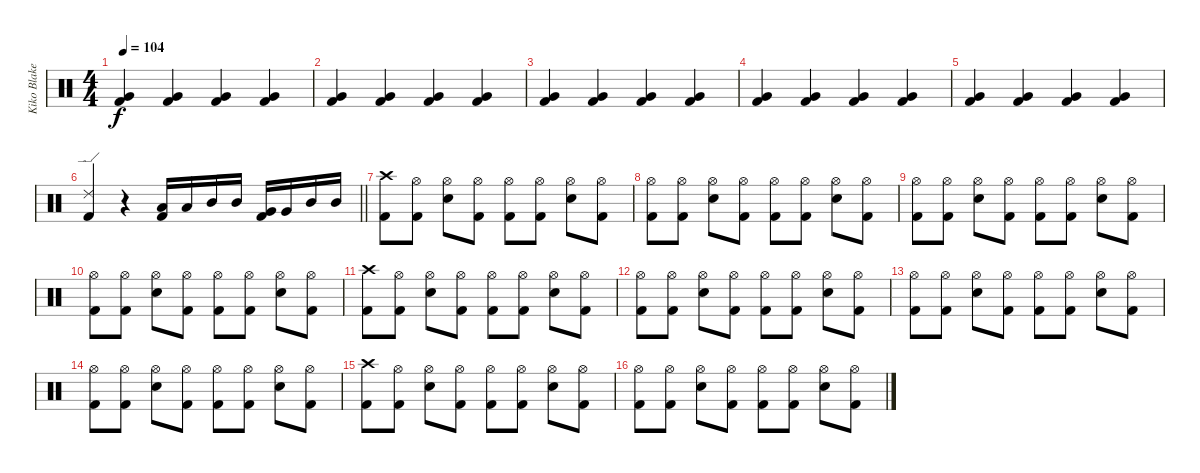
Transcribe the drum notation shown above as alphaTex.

\track ("Kiko Blake" "Kiko Blake") {instrument percussion}
\staff
\articulation defaults
\ts (4 4)
\tempo 104
\clef neutral
\ks c
("Very Low Tom (hit)" "Kick (hit) 2").4{dy f} ("Very Low Tom (hit)" "Kick (hit) 2").4 ("Very Low Tom (hit)" "Kick (hit) 2").4 ("Very Low Tom (hit)" "Kick (hit) 2").4 |
("Very Low Tom (hit)" "Kick (hit) 2").4 ("Very Low Tom (hit)" "Kick (hit) 2").4 ("Very Low Tom (hit)" "Kick (hit) 2").4 ("Very Low Tom (hit)" "Kick (hit) 2").4 |
("Very Low Tom (hit)" "Kick (hit) 2").4 ("Very Low Tom (hit)" "Kick (hit) 2").4 ("Very Low Tom (hit)" "Kick (hit) 2").4 ("Very Low Tom (hit)" "Kick (hit) 2").4 |
("Very Low Tom (hit)" "Kick (hit) 2").4 ("Very Low Tom (hit)" "Kick (hit) 2").4 ("Very Low Tom (hit)" "Kick (hit) 2").4 ("Very Low Tom (hit)" "Kick (hit) 2").4 |
("Very Low Tom (hit)" "Kick (hit) 2").4 ("Very Low Tom (hit)" "Kick (hit) 2").4 ("Very Low Tom (hit)" "Kick (hit) 2").4 ("Very Low Tom (hit)" "Kick (hit) 2").4 |
\barLineRight lightlight
("Ride (edge) 2" "Kick (hit) 2").4 r.4 ("Low Tom (hit)" "Kick (hit) 2").16 "Low Tom (hit)".16 "Mid Tom (hit)".16 "Mid Tom (hit)".16 ("Very Low Tom (hit)" "Kick (hit) 2").16 "Very Low Tom (hit)".16 "Mid Tom (hit)".16 "Mid Tom (hit)".16 |
("Crash high (hit)" "Kick (hit) 2").8 ("Hi-Hat (open)" "Kick (hit) 2").8 ("Hi-Hat (open)" "Snare (hit) 2").8 ("Hi-Hat (open)" "Kick (hit) 2").8 ("Hi-Hat (open)" "Kick (hit) 2").8 ("Hi-Hat (open)" "Kick (hit) 2").8 ("Hi-Hat (open)" "Snare (hit) 2").8 ("Hi-Hat (open)" "Kick (hit) 2").8 |
("Hi-Hat (open)" "Kick (hit) 2").8 ("Hi-Hat (open)" "Kick (hit) 2").8 ("Hi-Hat (open)" "Snare (hit) 2").8 ("Hi-Hat (open)" "Kick (hit) 2").8 ("Hi-Hat (open)" "Kick (hit) 2").8 ("Hi-Hat (open)" "Kick (hit) 2").8 ("Hi-Hat (open)" "Snare (hit) 2").8 ("Hi-Hat (open)" "Kick (hit) 2").8 |
("Hi-Hat (open)" "Kick (hit) 2").8 ("Hi-Hat (open)" "Kick (hit) 2").8 ("Hi-Hat (open)" "Snare (hit) 2").8 ("Hi-Hat (open)" "Kick (hit) 2").8 ("Hi-Hat (open)" "Kick (hit) 2").8 ("Hi-Hat (open)" "Kick (hit) 2").8 ("Hi-Hat (open)" "Snare (hit) 2").8 ("Hi-Hat (open)" "Kick (hit) 2").8 |
("Hi-Hat (open)" "Kick (hit) 2").8 ("Hi-Hat (open)" "Kick (hit) 2").8 ("Hi-Hat (open)" "Snare (hit) 2").8 ("Hi-Hat (open)" "Kick (hit) 2").8 ("Hi-Hat (open)" "Kick (hit) 2").8 ("Hi-Hat (open)" "Kick (hit) 2").8 ("Hi-Hat (open)" "Snare (hit) 2").8 ("Hi-Hat (open)" "Kick (hit) 2").8 |
("Crash high (hit)" "Kick (hit) 2").8 ("Hi-Hat (open)" "Kick (hit) 2").8 ("Hi-Hat (open)" "Snare (hit) 2").8 ("Hi-Hat (open)" "Kick (hit) 2").8 ("Hi-Hat (open)" "Kick (hit) 2").8 ("Hi-Hat (open)" "Kick (hit) 2").8 ("Hi-Hat (open)" "Snare (hit) 2").8 ("Hi-Hat (open)" "Kick (hit) 2").8 |
("Hi-Hat (open)" "Kick (hit) 2").8 ("Hi-Hat (open)" "Kick (hit) 2").8 ("Hi-Hat (open)" "Snare (hit) 2").8 ("Hi-Hat (open)" "Kick (hit) 2").8 ("Hi-Hat (open)" "Kick (hit) 2").8 ("Hi-Hat (open)" "Kick (hit) 2").8 ("Hi-Hat (open)" "Snare (hit) 2").8 ("Hi-Hat (open)" "Kick (hit) 2").8 |
("Hi-Hat (open)" "Kick (hit) 2").8 ("Hi-Hat (open)" "Kick (hit) 2").8 ("Hi-Hat (open)" "Snare (hit) 2").8 ("Hi-Hat (open)" "Kick (hit) 2").8 ("Hi-Hat (open)" "Kick (hit) 2").8 ("Hi-Hat (open)" "Kick (hit) 2").8 ("Hi-Hat (open)" "Snare (hit) 2").8 ("Hi-Hat (open)" "Kick (hit) 2").8 |
("Hi-Hat (open)" "Kick (hit) 2").8 ("Hi-Hat (open)" "Kick (hit) 2").8 ("Hi-Hat (open)" "Snare (hit) 2").8 ("Hi-Hat (open)" "Kick (hit) 2").8 ("Hi-Hat (open)" "Kick (hit) 2").8 ("Hi-Hat (open)" "Kick (hit) 2").8 ("Hi-Hat (open)" "Snare (hit) 2").8 ("Hi-Hat (open)" "Kick (hit) 2").8 |
("Crash high (hit)" "Kick (hit) 2").8 ("Hi-Hat (open)" "Kick (hit) 2").8 ("Hi-Hat (open)" "Snare (hit) 2").8 ("Hi-Hat (open)" "Kick (hit) 2").8 ("Hi-Hat (open)" "Kick (hit) 2").8 ("Hi-Hat (open)" "Kick (hit) 2").8 ("Hi-Hat (open)" "Snare (hit) 2").8 ("Hi-Hat (open)" "Kick (hit) 2").8 |
("Hi-Hat (open)" "Kick (hit) 2").8 ("Hi-Hat (open)" "Kick (hit) 2").8 ("Hi-Hat (open)" "Snare (hit) 2").8 ("Hi-Hat (open)" "Kick (hit) 2").8 ("Hi-Hat (open)" "Kick (hit) 2").8 ("Hi-Hat (open)" "Kick (hit) 2").8 ("Hi-Hat (open)" "Snare (hit) 2").8 ("Hi-Hat (open)" "Kick (hit) 2").8
